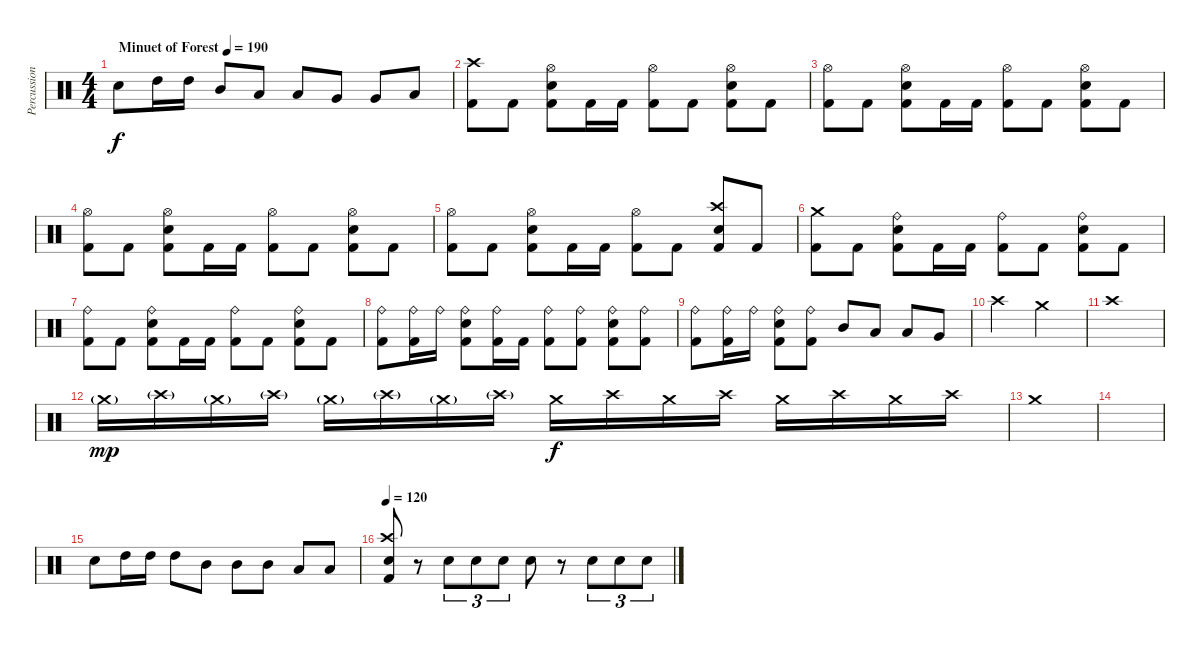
\track ("Percussion" "Percussion") {instrument percussion}
\staff {score}
\articulation defaults
\ts (4 4)
\tempo (190 "Minuet of Forest")
\clef neutral
\ks c "Snare (hit) 2".8{dy f} "High Tom (hit)".16 "High Tom (hit)".16 "Mid Tom (hit)".8 "Low Tom (hit)".8 "Low Tom (hit)".8 "Very Low Tom (hit)".8 "Very Low Tom (hit)".8 "Low Floor Tom (hit)".8
|
("Crash high (hit)" "Kick (hit) 2").8 "Kick (hit) 2".8 ("Hi-Hat (open)" "Snare (hit) 2" "Kick (hit) 2").8 "Kick (hit) 2".16 "Kick (hit) 2".16 ("Hi-Hat (open)" "Kick (hit) 2").8 "Kick (hit) 2".8 ("Hi-Hat (open)" "Snare (hit) 2" "Kick (hit) 2").8 "Kick (hit) 2".8 |
("Hi-Hat (open)" "Kick (hit) 2").8 "Kick (hit) 2".8 ("Hi-Hat (open)" "Snare (hit) 2" "Kick (hit) 2").8 "Kick (hit) 2".16 "Kick (hit) 2".16 ("Hi-Hat (open)" "Kick (hit) 2").8 "Kick (hit) 2".8 ("Hi-Hat (open)" "Snare (hit) 2" "Kick (hit) 2").8 "Kick (hit) 2".8 |
("Hi-Hat (open)" "Kick (hit) 2").8 "Kick (hit) 2".8 ("Hi-Hat (open)" "Snare (hit) 2" "Kick (hit) 2").8 "Kick (hit) 2".16 "Kick (hit) 2".16 ("Hi-Hat (open)" "Kick (hit) 2").8 "Kick (hit) 2".8 ("Hi-Hat (open)" "Snare (hit) 2" "Kick (hit) 2").8 "Kick (hit) 2".8 |
("Hi-Hat (open)" "Kick (hit) 2").8 "Kick (hit) 2".8 ("Hi-Hat (open)" "Snare (hit) 2" "Kick (hit) 2").8 "Kick (hit) 2".16 "Kick (hit) 2".16 ("Hi-Hat (open)" "Kick (hit) 2").8 "Kick (hit) 2".8 ("Crash high (hit)" "Snare (hit) 2" "Kick (hit) 2").8 "Kick (hit) 2".8 |
("Crash medium (hit)" "Kick (hit) 2").8 "Kick (hit) 2".8 ("Ride (bell)" "Snare (hit) 2" "Kick (hit) 2").8 "Kick (hit) 2".16 "Kick (hit) 2".16 ("Ride (bell)" "Kick (hit) 2").8 "Kick (hit) 2".8 ("Ride (bell)" "Snare (hit) 2" "Kick (hit) 2").8 "Kick (hit) 2".8 |
("Ride (bell)" "Kick (hit) 2").8 "Kick (hit) 2".8 ("Ride (bell)" "Snare (hit) 2" "Kick (hit) 2").8 "Kick (hit) 2".16 "Kick (hit) 2".16 ("Ride (bell)" "Kick (hit) 2").8 "Kick (hit) 2".8 ("Ride (bell)" "Snare (hit) 2" "Kick (hit) 2").8 "Kick (hit) 2".8 |
("Ride (bell)" "Kick (hit) 2").8 ("Ride (bell)" "Kick (hit) 2").16 "Ride (bell)".16 ("Ride (bell)" "Snare (hit) 2" "Kick (hit) 2").8 ("Ride (bell)" "Kick (hit) 2").16 "Kick (hit) 2".16 ("Ride (bell)" "Kick (hit) 2").8 ("Ride (bell)" "Kick (hit) 2").8 ("Ride (bell)" "Snare (hit) 2" "Kick (hit) 2").8 ("Ride (bell)" "Kick (hit) 2").8 |
("Ride (bell)" "Kick (hit) 2").8 ("Ride (bell)" "Kick (hit) 2").16 "Ride (bell)".16 ("Ride (bell)" "Snare (hit) 2" "Kick (hit) 2").8 ("Ride (bell)" "Kick (hit) 2").8 "Mid Tom (hit)".8 "Low Tom (hit)".8 "Low Tom (hit)".8 "Very Low Tom (hit)".8 |
"Crash high (hit)".2 "Crash medium (hit)".2 |
"Crash high (hit)".1 |
"Crash medium (hit)"{g}.16{dy mp} "Crash high (hit)"{g}.16 "Crash medium (hit)"{g}.16 "Crash high (hit)"{g}.16 "Crash medium (hit)"{g}.16 "Crash high (hit)"{g}.16 "Crash medium (hit)"{g}.16 "Crash high (hit)"{g}.16 "Crash medium (hit)".16{dy f} "Crash high (hit)".16 "Crash medium (hit)".16 "Crash high (hit)".16 "Crash medium (hit)".16 "Crash high (hit)".16 "Crash medium (hit)".16 "Crash high (hit)".16 |
"Crash medium (hit)".1 |
|
"Snare (hit) 2".8 "High Tom (hit)".16 "High Tom (hit)".16 "High Tom (hit)".8 "Mid Tom (hit)".8 "Mid Tom (hit)".8 "Mid Tom (hit)".8 "Low Tom (hit)".8 "Low Tom (hit)".8 |
\tempo 120
("Crash high (hit)" "Snare (hit) 2" "Kick (hit) 2").8 r.8 "Snare (hit) 2".8{tu (3 2)} "Snare (hit) 2".8{tu (3 2)} "Snare (hit) 2".8{tu (3 2)} "Snare (hit) 2".8 r.8 "Snare (hit) 2".8{tu (3 2)} "Snare (hit) 2".8{tu (3 2)} "Snare (hit) 2".8{tu (3 2)}
